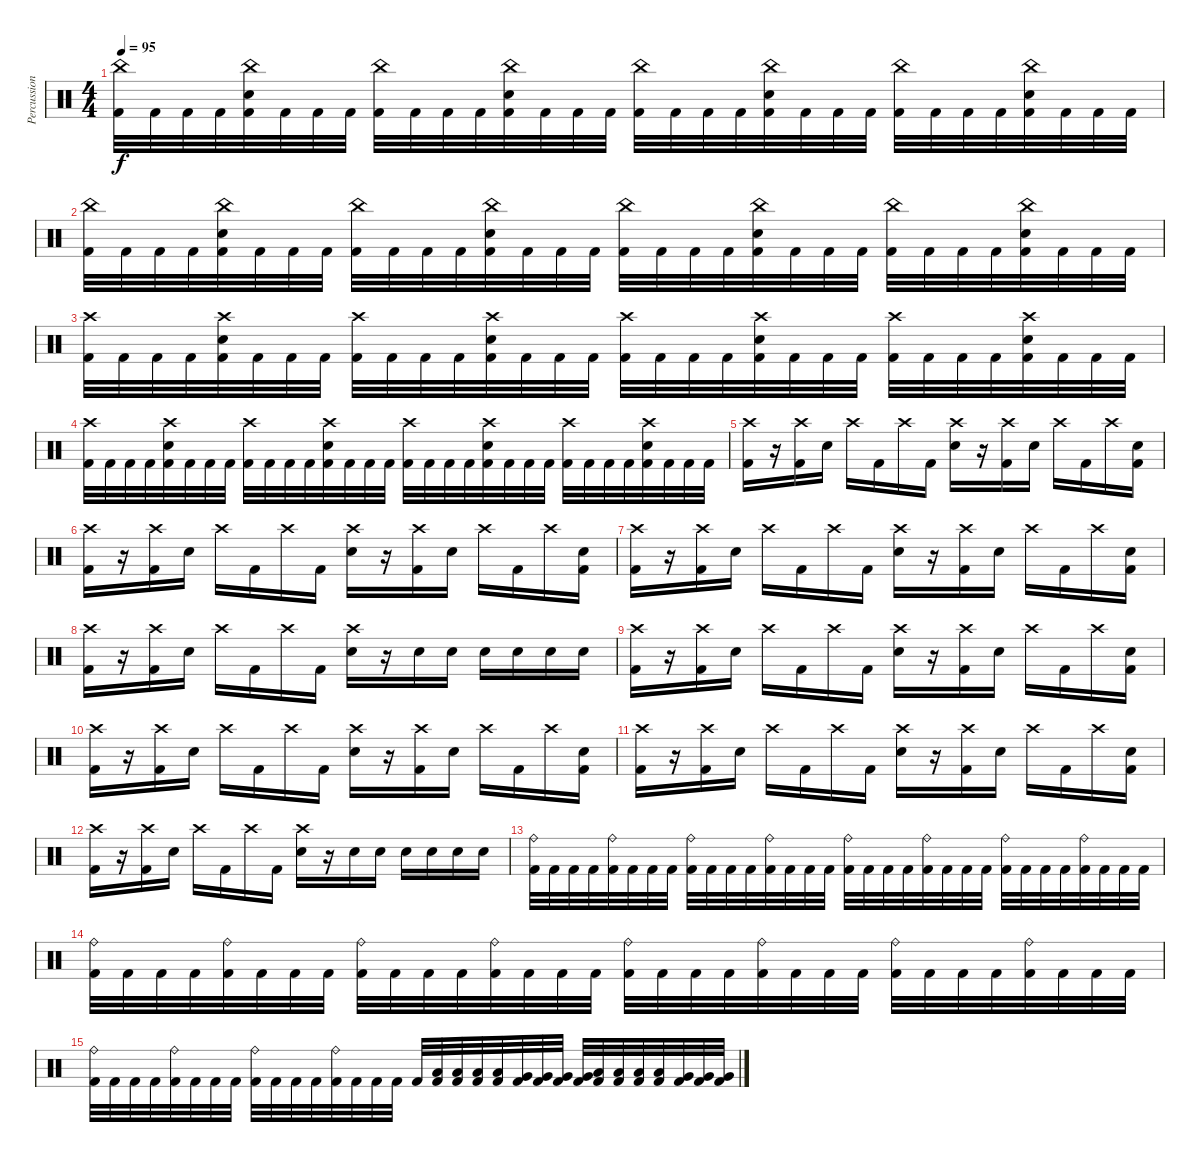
\track ("Percussion" "Percussion") {instrument percussion}
\staff {score}
\articulation defaults
\ts (4 4)
\tempo 95
\clef neutral
\ks c
("China (hit)" "Kick (hit) 2").32{dy f} "Kick (hit) 2".32 "Kick (hit) 2".32 "Kick (hit) 2".32 ("China (hit)" "Snare (hit) 2" "Kick (hit) 2").32 "Kick (hit) 2".32 "Kick (hit) 2".32 "Kick (hit) 2".32 ("China (hit)" "Kick (hit) 2").32 "Kick (hit) 2".32 "Kick (hit) 2".32 "Kick (hit) 2".32 ("China (hit)" "Snare (hit) 2" "Kick (hit) 2").32 "Kick (hit) 2".32 "Kick (hit) 2".32 "Kick (hit) 2".32 ("China (hit)" "Kick (hit) 2").32 "Kick (hit) 2".32 "Kick (hit) 2".32 "Kick (hit) 2".32 ("China (hit)" "Snare (hit) 2" "Kick (hit) 2").32 "Kick (hit) 2".32 "Kick (hit) 2".32 "Kick (hit) 2".32 ("China (hit)" "Kick (hit) 2").32 "Kick (hit) 2".32 "Kick (hit) 2".32 "Kick (hit) 2".32 ("China (hit)" "Snare (hit) 2" "Kick (hit) 2").32 "Kick (hit) 2".32 "Kick (hit) 2".32 "Kick (hit) 2".32 |
("China (hit)" "Kick (hit) 2").32 "Kick (hit) 2".32 "Kick (hit) 2".32 "Kick (hit) 2".32 ("China (hit)" "Snare (hit) 2" "Kick (hit) 2").32 "Kick (hit) 2".32 "Kick (hit) 2".32 "Kick (hit) 2".32 ("China (hit)" "Kick (hit) 2").32 "Kick (hit) 2".32 "Kick (hit) 2".32 "Kick (hit) 2".32 ("China (hit)" "Snare (hit) 2" "Kick (hit) 2").32 "Kick (hit) 2".32 "Kick (hit) 2".32 "Kick (hit) 2".32 ("China (hit)" "Kick (hit) 2").32 "Kick (hit) 2".32 "Kick (hit) 2".32 "Kick (hit) 2".32 ("China (hit)" "Snare (hit) 2" "Kick (hit) 2").32 "Kick (hit) 2".32 "Kick (hit) 2".32 "Kick (hit) 2".32 ("China (hit)" "Kick (hit) 2").32 "Kick (hit) 2".32 "Kick (hit) 2".32 "Kick (hit) 2".32 ("China (hit)" "Snare (hit) 2" "Kick (hit) 2").32 "Kick (hit) 2".32 "Kick (hit) 2".32 "Kick (hit) 2".32 |
("Crash high (hit)" "Kick (hit) 2").32 "Kick (hit) 2".32 "Kick (hit) 2".32 "Kick (hit) 2".32 ("Crash high (hit)" "Snare (hit) 2" "Kick (hit) 2").32 "Kick (hit) 2".32 "Kick (hit) 2".32 "Kick (hit) 2".32 ("Crash high (hit)" "Kick (hit) 2").32 "Kick (hit) 2".32 "Kick (hit) 2".32 "Kick (hit) 2".32 ("Crash high (hit)" "Snare (hit) 2" "Kick (hit) 2").32 "Kick (hit) 2".32 "Kick (hit) 2".32 "Kick (hit) 2".32 ("Crash high (hit)" "Kick (hit) 2").32 "Kick (hit) 2".32 "Kick (hit) 2".32 "Kick (hit) 2".32 ("Crash high (hit)" "Snare (hit) 2" "Kick (hit) 2").32 "Kick (hit) 2".32 "Kick (hit) 2".32 "Kick (hit) 2".32 ("Crash high (hit)" "Kick (hit) 2").32 "Kick (hit) 2".32 "Kick (hit) 2".32 "Kick (hit) 2".32 ("Crash high (hit)" "Snare (hit) 2" "Kick (hit) 2").32 "Kick (hit) 2".32 "Kick (hit) 2".32 "Kick (hit) 2".32 |
("Crash high (hit)" "Kick (hit) 2").32 "Kick (hit) 2".32 "Kick (hit) 2".32 "Kick (hit) 2".32 ("Crash high (hit)" "Snare (hit) 2" "Kick (hit) 2").32 "Kick (hit) 2".32 "Kick (hit) 2".32 "Kick (hit) 2".32 ("Crash high (hit)" "Kick (hit) 2").32 "Kick (hit) 2".32 "Kick (hit) 2".32 "Kick (hit) 2".32 ("Crash high (hit)" "Snare (hit) 2" "Kick (hit) 2").32 "Kick (hit) 2".32 "Kick (hit) 2".32 "Kick (hit) 2".32 ("Crash high (hit)" "Kick (hit) 2").32 "Kick (hit) 2".32 "Kick (hit) 2".32 "Kick (hit) 2".32 ("Crash high (hit)" "Snare (hit) 2" "Kick (hit) 2").32 "Kick (hit) 2".32 "Kick (hit) 2".32 "Kick (hit) 2".32 ("Crash high (hit)" "Kick (hit) 2").32 "Kick (hit) 2".32 "Kick (hit) 2".32 "Kick (hit) 2".32 ("Crash high (hit)" "Snare (hit) 2" "Kick (hit) 2").32 "Kick (hit) 2".32 "Kick (hit) 2".32 "Kick (hit) 2".32 |
("Crash high (hit)" "Kick (hit) 2").16 r.16 ("Crash high (hit)" "Kick (hit) 2").16 "Snare (hit) 2".16 "Crash high (hit)".16 "Kick (hit) 2".16 "Crash high (hit)".16 "Kick (hit) 2".16 ("Crash high (hit)" "Snare (hit) 2").16 r.16 ("Crash high (hit)" "Kick (hit) 2").16 "Snare (hit) 2".16 "Crash high (hit)".16 "Kick (hit) 2".16 "Crash high (hit)".16 ("Snare (hit) 2" "Kick (hit) 2").16 |
("Crash high (hit)" "Kick (hit) 2").16 r.16 ("Crash high (hit)" "Kick (hit) 2").16 "Snare (hit) 2".16 "Crash high (hit)".16 "Kick (hit) 2".16 "Crash high (hit)".16 "Kick (hit) 2".16 ("Crash high (hit)" "Snare (hit) 2").16 r.16 ("Crash high (hit)" "Kick (hit) 2").16 "Snare (hit) 2".16 "Crash high (hit)".16 "Kick (hit) 2".16 "Crash high (hit)".16 ("Snare (hit) 2" "Kick (hit) 2").16 |
("Crash high (hit)" "Kick (hit) 2").16 r.16 ("Crash high (hit)" "Kick (hit) 2").16 "Snare (hit) 2".16 "Crash high (hit)".16 "Kick (hit) 2".16 "Crash high (hit)".16 "Kick (hit) 2".16 ("Crash high (hit)" "Snare (hit) 2").16 r.16 ("Crash high (hit)" "Kick (hit) 2").16 "Snare (hit) 2".16 "Crash high (hit)".16 "Kick (hit) 2".16 "Crash high (hit)".16 ("Snare (hit) 2" "Kick (hit) 2").16 |
("Crash high (hit)" "Kick (hit) 2").16 r.16 ("Crash high (hit)" "Kick (hit) 2").16 "Snare (hit) 2".16 "Crash high (hit)".16 "Kick (hit) 2".16 "Crash high (hit)".16 "Kick (hit) 2".16 ("Crash high (hit)" "Snare (hit) 2").16 r.16 "Snare (hit) 2".16 "Snare (hit) 2".16 "Snare (hit) 2".16 "Snare (hit) 2".16 "Snare (hit) 2".16 "Snare (hit) 2".16 |
("Crash high (hit)" "Kick (hit) 2").16 r.16 ("Crash high (hit)" "Kick (hit) 2").16 "Snare (hit) 2".16 "Crash high (hit)".16 "Kick (hit) 2".16 "Crash high (hit)".16 "Kick (hit) 2".16 ("Crash high (hit)" "Snare (hit) 2").16 r.16 ("Crash high (hit)" "Kick (hit) 2").16 "Snare (hit) 2".16 "Crash high (hit)".16 "Kick (hit) 2".16 "Crash high (hit)".16 ("Snare (hit) 2" "Kick (hit) 2").16 |
("Crash high (hit)" "Kick (hit) 2").16 r.16 ("Crash high (hit)" "Kick (hit) 2").16 "Snare (hit) 2".16 "Crash high (hit)".16 "Kick (hit) 2".16 "Crash high (hit)".16 "Kick (hit) 2".16 ("Crash high (hit)" "Snare (hit) 2").16 r.16 ("Crash high (hit)" "Kick (hit) 2").16 "Snare (hit) 2".16 "Crash high (hit)".16 "Kick (hit) 2".16 "Crash high (hit)".16 ("Snare (hit) 2" "Kick (hit) 2").16 |
("Crash high (hit)" "Kick (hit) 2").16 r.16 ("Crash high (hit)" "Kick (hit) 2").16 "Snare (hit) 2".16 "Crash high (hit)".16 "Kick (hit) 2".16 "Crash high (hit)".16 "Kick (hit) 2".16 ("Crash high (hit)" "Snare (hit) 2").16 r.16 ("Crash high (hit)" "Kick (hit) 2").16 "Snare (hit) 2".16 "Crash high (hit)".16 "Kick (hit) 2".16 "Crash high (hit)".16 ("Snare (hit) 2" "Kick (hit) 2").16 |
("Crash high (hit)" "Kick (hit) 2").16 r.16 ("Crash high (hit)" "Kick (hit) 2").16 "Snare (hit) 2".16 "Crash high (hit)".16 "Kick (hit) 2".16 "Crash high (hit)".16 "Kick (hit) 2".16 ("Crash high (hit)" "Snare (hit) 2").16 r.16 "Snare (hit) 2".16 "Snare (hit) 2".16 "Snare (hit) 2".16 "Snare (hit) 2".16 "Snare (hit) 2".16 "Snare (hit) 2".16 |
("Ride (bell)" "Kick (hit) 2").32 "Kick (hit) 2".32 "Kick (hit) 2".32 "Kick (hit) 2".32 ("Ride (bell)" "Kick (hit) 2").32 "Kick (hit) 2".32 "Kick (hit) 2".32 "Kick (hit) 2".32 ("Ride (bell)" "Kick (hit) 2").32 "Kick (hit) 2".32 "Kick (hit) 2".32 "Kick (hit) 2".32 ("Ride (bell)" "Kick (hit) 2").32 "Kick (hit) 2".32 "Kick (hit) 2".32 "Kick (hit) 2".32 ("Ride (bell)" "Kick (hit) 2").32 "Kick (hit) 2".32 "Kick (hit) 2".32 "Kick (hit) 2".32 ("Ride (bell)" "Kick (hit) 2").32 "Kick (hit) 2".32 "Kick (hit) 2".32 "Kick (hit) 2".32 ("Ride (bell)" "Kick (hit) 2").32 "Kick (hit) 2".32 "Kick (hit) 2".32 "Kick (hit) 2".32 ("Ride (bell)" "Kick (hit) 2").32 "Kick (hit) 2".32 "Kick (hit) 2".32 "Kick (hit) 2".32 |
("Ride (bell)" "Kick (hit) 2").32 "Kick (hit) 2".32 "Kick (hit) 2".32 "Kick (hit) 2".32 ("Ride (bell)" "Kick (hit) 2").32 "Kick (hit) 2".32 "Kick (hit) 2".32 "Kick (hit) 2".32 ("Ride (bell)" "Kick (hit) 2").32 "Kick (hit) 2".32 "Kick (hit) 2".32 "Kick (hit) 2".32 ("Ride (bell)" "Kick (hit) 2").32 "Kick (hit) 2".32 "Kick (hit) 2".32 "Kick (hit) 2".32 ("Ride (bell)" "Kick (hit) 2").32 "Kick (hit) 2".32 "Kick (hit) 2".32 "Kick (hit) 2".32 ("Ride (bell)" "Kick (hit) 2").32 "Kick (hit) 2".32 "Kick (hit) 2".32 "Kick (hit) 2".32 ("Ride (bell)" "Kick (hit) 2").32 "Kick (hit) 2".32 "Kick (hit) 2".32 "Kick (hit) 2".32 ("Ride (bell)" "Kick (hit) 2").32 "Kick (hit) 2".32 "Kick (hit) 2".32 "Kick (hit) 2".32 |
("Ride (bell)" "Kick (hit) 2").32 "Kick (hit) 2".32 "Kick (hit) 2".32 "Kick (hit) 2".32 ("Ride (bell)" "Kick (hit) 2").32 "Kick (hit) 2".32 "Kick (hit) 2".32 "Kick (hit) 2".32 ("Ride (bell)" "Kick (hit) 2").32 "Kick (hit) 2".32 "Kick (hit) 2".32 "Kick (hit) 2".32 ("Ride (bell)" "Kick (hit) 2").32 "Kick (hit) 2".32 "Kick (hit) 2".32 "Kick (hit) 2".32 "Kick (hit) 2".32 ("Low Floor Tom (hit)" "Kick (hit) 2").32 ("Low Floor Tom (hit)" "Kick (hit) 2").32 ("Low Floor Tom (hit)" "Kick (hit) 2").32 ("Low Floor Tom (hit)" "Kick (hit) 2").32 ("Very Low Tom (hit)" "Kick (hit) 2").32 ("Very Low Tom (hit)" "Kick (hit) 2").32 ("Very Low Tom (hit)" "Kick (hit) 2").32 ("Very Low Tom (hit)" "Kick (hit) 2").32 ("Low Tom (hit)" "Kick (hit) 2").32 ("Low Tom (hit)" "Kick (hit) 2").32 ("Low Tom (hit)" "Kick (hit) 2").32 ("Low Tom (hit)" "Kick (hit) 2").32 ("Very Low Tom (hit)" "Kick (hit) 2").32 ("Very Low Tom (hit)" "Kick (hit) 2").32 ("Very Low Tom (hit)" "Kick (hit) 2").32
